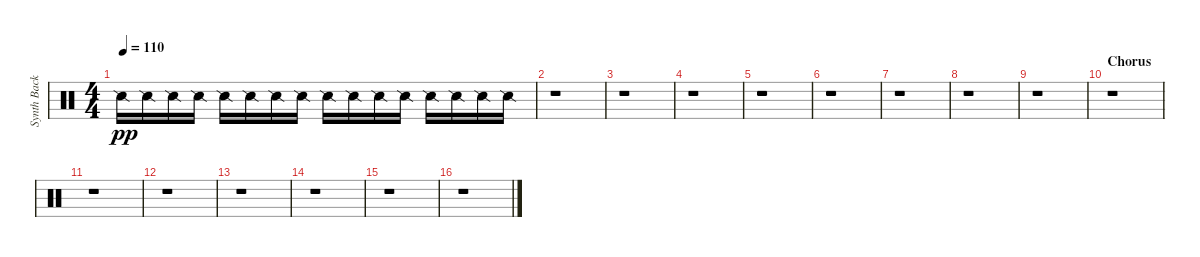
\track ("Synth Background Rhythm" "Synth Back") {instrument percussion}
\staff {score}
\articulation defaults
\ts (4 4)
\tempo 110
\clef neutral
\ks c "Snare (side stick) 2".16{dy pp} "Snare (side stick) 2".16 "Snare (side stick) 2".16 "Snare (side stick) 2".16 "Snare (side stick) 2".16 "Snare (side stick) 2".16 "Snare (side stick) 2".16 "Snare (side stick) 2".16 "Snare (side stick) 2".16 "Snare (side stick) 2".16 "Snare (side stick) 2".16 "Snare (side stick) 2".16 "Snare (side stick) 2".16 "Snare (side stick) 2".16 "Snare (side stick) 2".16 "Snare (side stick) 2".16
|
r.1 |
r.1 |
r.1 |
r.1 |
r.1 |
r.1 |
r.1 |
r.1 |
\section ("" "Chorus")
r.1 |
r.1 |
r.1 |
r.1 |
r.1 |
r.1 |
r.1
